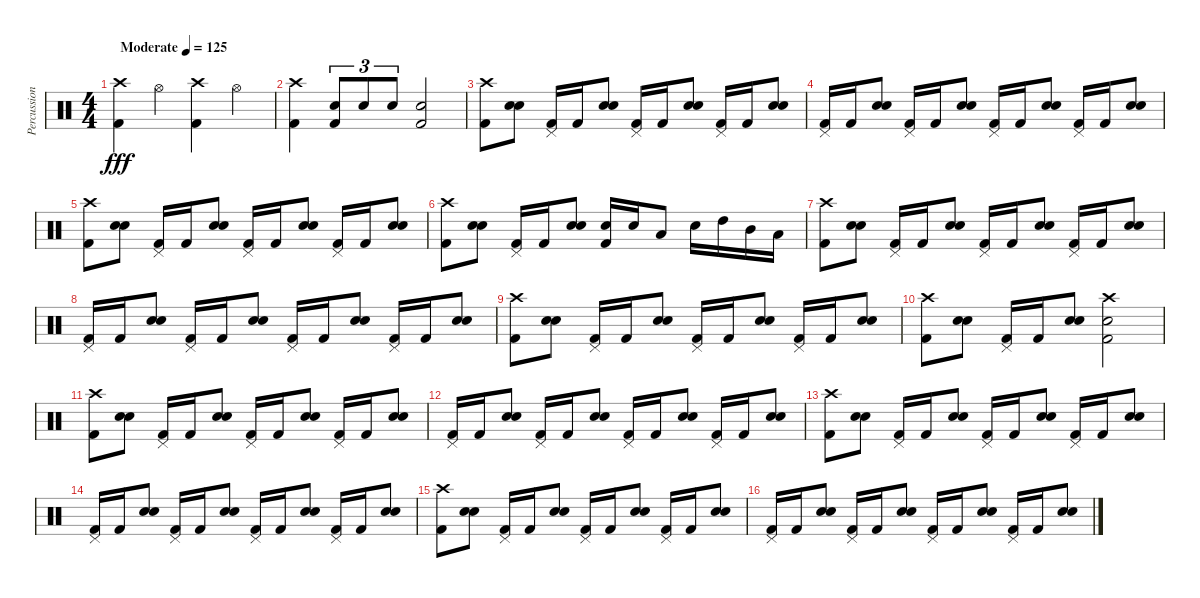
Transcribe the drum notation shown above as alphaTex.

\track ("Percussion" "Percussion") {instrument percussion}
\staff {score}
\articulation defaults
\ts (4 4)
\tempo (125 "Moderate")
\clef neutral
\ks c
("Crash high (hit)" "Kick (hit) 2").4{dy fff} "Hi-Hat (open)".4 ("Crash high (hit)" "Kick (hit) 2").4 "Hi-Hat (open)".4 |
("Crash high (hit)" "Kick (hit) 2").4 ("Snare (hit) 2" "Kick (hit) 2").8{tu (3 2)} "Snare (hit) 2".8{tu (3 2)} "Snare (hit) 2".8{tu (3 2)} ("Snare (hit) 2" "Kick (hit) 2").2 |
("Crash high (hit)" "Kick (hit) 2").8 ("Snare (hit) 2" "Snare (hit) 2").8 ("Pedal Hi-Hat (hit)" "Kick (hit) 2").16 "Kick (hit) 2".16 ("Snare (hit) 2" "Snare (hit) 2").8 ("Pedal Hi-Hat (hit)" "Kick (hit) 2").16 "Kick (hit) 2".16 ("Snare (hit) 2" "Snare (hit) 2").8 ("Pedal Hi-Hat (hit)" "Kick (hit) 2").16 "Kick (hit) 2".16 ("Snare (hit) 2" "Snare (hit) 2").8 |
("Pedal Hi-Hat (hit)" "Kick (hit) 2").16 "Kick (hit) 2".16 ("Snare (hit) 2" "Snare (hit) 2").8 ("Pedal Hi-Hat (hit)" "Kick (hit) 2").16 "Kick (hit) 2".16 ("Snare (hit) 2" "Snare (hit) 2").8 ("Pedal Hi-Hat (hit)" "Kick (hit) 2").16 "Kick (hit) 2".16 ("Snare (hit) 2" "Snare (hit) 2").8 ("Pedal Hi-Hat (hit)" "Kick (hit) 2").16 "Kick (hit) 2".16 ("Snare (hit) 2" "Snare (hit) 2").8 |
("Crash high (hit)" "Kick (hit) 2").8 ("Snare (hit) 2" "Snare (hit) 2").8 ("Pedal Hi-Hat (hit)" "Kick (hit) 2").16 "Kick (hit) 2".16 ("Snare (hit) 2" "Snare (hit) 2").8 ("Pedal Hi-Hat (hit)" "Kick (hit) 2").16 "Kick (hit) 2".16 ("Snare (hit) 2" "Snare (hit) 2").8 ("Pedal Hi-Hat (hit)" "Kick (hit) 2").16 "Kick (hit) 2".16 ("Snare (hit) 2" "Snare (hit) 2").8 |
("Crash high (hit)" "Kick (hit) 2").8 ("Snare (hit) 2" "Snare (hit) 2").8 ("Pedal Hi-Hat (hit)" "Kick (hit) 2").16 "Kick (hit) 2".16 ("Snare (hit) 2" "Snare (hit) 2").8 ("Snare (hit) 2" "Kick (hit) 2").16 "Snare (hit) 2".16 "Low Tom (hit)".8 "Snare (hit) 2".16 "High Tom (hit)".16 "Mid Tom (hit)".16 "Low Tom (hit)".16 |
("Crash high (hit)" "Kick (hit) 2").8 ("Snare (hit) 2" "Snare (hit) 2").8 ("Pedal Hi-Hat (hit)" "Kick (hit) 2").16 "Kick (hit) 2".16 ("Snare (hit) 2" "Snare (hit) 2").8 ("Pedal Hi-Hat (hit)" "Kick (hit) 2").16 "Kick (hit) 2".16 ("Snare (hit) 2" "Snare (hit) 2").8 ("Pedal Hi-Hat (hit)" "Kick (hit) 2").16 "Kick (hit) 2".16 ("Snare (hit) 2" "Snare (hit) 2").8 |
("Pedal Hi-Hat (hit)" "Kick (hit) 2").16 "Kick (hit) 2".16 ("Snare (hit) 2" "Snare (hit) 2").8 ("Pedal Hi-Hat (hit)" "Kick (hit) 2").16 "Kick (hit) 2".16 ("Snare (hit) 2" "Snare (hit) 2").8 ("Pedal Hi-Hat (hit)" "Kick (hit) 2").16 "Kick (hit) 2".16 ("Snare (hit) 2" "Snare (hit) 2").8 ("Pedal Hi-Hat (hit)" "Kick (hit) 2").16 "Kick (hit) 2".16 ("Snare (hit) 2" "Snare (hit) 2").8 |
("Crash high (hit)" "Kick (hit) 2").8 ("Snare (hit) 2" "Snare (hit) 2").8 ("Pedal Hi-Hat (hit)" "Kick (hit) 2").16 "Kick (hit) 2".16 ("Snare (hit) 2" "Snare (hit) 2").8 ("Pedal Hi-Hat (hit)" "Kick (hit) 2").16 "Kick (hit) 2".16 ("Snare (hit) 2" "Snare (hit) 2").8 ("Pedal Hi-Hat (hit)" "Kick (hit) 2").16 "Kick (hit) 2".16 ("Snare (hit) 2" "Snare (hit) 2").8 |
("Crash high (hit)" "Kick (hit) 2").8 ("Snare (hit) 2" "Snare (hit) 2").8 ("Pedal Hi-Hat (hit)" "Kick (hit) 2").16 "Kick (hit) 2".16 ("Snare (hit) 2" "Snare (hit) 2").8 ("Crash high (hit)" "Snare (hit) 2" "Kick (hit) 2").2 |
("Crash high (hit)" "Kick (hit) 2").8 ("Snare (hit) 2" "Snare (hit) 2").8 ("Pedal Hi-Hat (hit)" "Kick (hit) 2").16 "Kick (hit) 2".16 ("Snare (hit) 2" "Snare (hit) 2").8 ("Pedal Hi-Hat (hit)" "Kick (hit) 2").16 "Kick (hit) 2".16 ("Snare (hit) 2" "Snare (hit) 2").8 ("Pedal Hi-Hat (hit)" "Kick (hit) 2").16 "Kick (hit) 2".16 ("Snare (hit) 2" "Snare (hit) 2").8 |
("Pedal Hi-Hat (hit)" "Kick (hit) 2").16 "Kick (hit) 2".16 ("Snare (hit) 2" "Snare (hit) 2").8 ("Pedal Hi-Hat (hit)" "Kick (hit) 2").16 "Kick (hit) 2".16 ("Snare (hit) 2" "Snare (hit) 2").8 ("Pedal Hi-Hat (hit)" "Kick (hit) 2").16 "Kick (hit) 2".16 ("Snare (hit) 2" "Snare (hit) 2").8 ("Pedal Hi-Hat (hit)" "Kick (hit) 2").16 "Kick (hit) 2".16 ("Snare (hit) 2" "Snare (hit) 2").8 |
("Crash high (hit)" "Kick (hit) 2").8 ("Snare (hit) 2" "Snare (hit) 2").8 ("Pedal Hi-Hat (hit)" "Kick (hit) 2").16 "Kick (hit) 2".16 ("Snare (hit) 2" "Snare (hit) 2").8 ("Pedal Hi-Hat (hit)" "Kick (hit) 2").16 "Kick (hit) 2".16 ("Snare (hit) 2" "Snare (hit) 2").8 ("Pedal Hi-Hat (hit)" "Kick (hit) 2").16 "Kick (hit) 2".16 ("Snare (hit) 2" "Snare (hit) 2").8 |
("Pedal Hi-Hat (hit)" "Kick (hit) 2").16 "Kick (hit) 2".16 ("Snare (hit) 2" "Snare (hit) 2").8 ("Pedal Hi-Hat (hit)" "Kick (hit) 2").16 "Kick (hit) 2".16 ("Snare (hit) 2" "Snare (hit) 2").8 ("Pedal Hi-Hat (hit)" "Kick (hit) 2").16 "Kick (hit) 2".16 ("Snare (hit) 2" "Snare (hit) 2").8 ("Pedal Hi-Hat (hit)" "Kick (hit) 2").16 "Kick (hit) 2".16 ("Snare (hit) 2" "Snare (hit) 2").8 |
("Crash high (hit)" "Kick (hit) 2").8 ("Snare (hit) 2" "Snare (hit) 2").8 ("Pedal Hi-Hat (hit)" "Kick (hit) 2").16 "Kick (hit) 2".16 ("Snare (hit) 2" "Snare (hit) 2").8 ("Pedal Hi-Hat (hit)" "Kick (hit) 2").16 "Kick (hit) 2".16 ("Snare (hit) 2" "Snare (hit) 2").8 ("Pedal Hi-Hat (hit)" "Kick (hit) 2").16 "Kick (hit) 2".16 ("Snare (hit) 2" "Snare (hit) 2").8 |
("Pedal Hi-Hat (hit)" "Kick (hit) 2").16 "Kick (hit) 2".16 ("Snare (hit) 2" "Snare (hit) 2").8 ("Pedal Hi-Hat (hit)" "Kick (hit) 2").16 "Kick (hit) 2".16 ("Snare (hit) 2" "Snare (hit) 2").8 ("Pedal Hi-Hat (hit)" "Kick (hit) 2").16 "Kick (hit) 2".16 ("Snare (hit) 2" "Snare (hit) 2").8 ("Pedal Hi-Hat (hit)" "Kick (hit) 2").16 "Kick (hit) 2".16 ("Snare (hit) 2" "Snare (hit) 2").8
